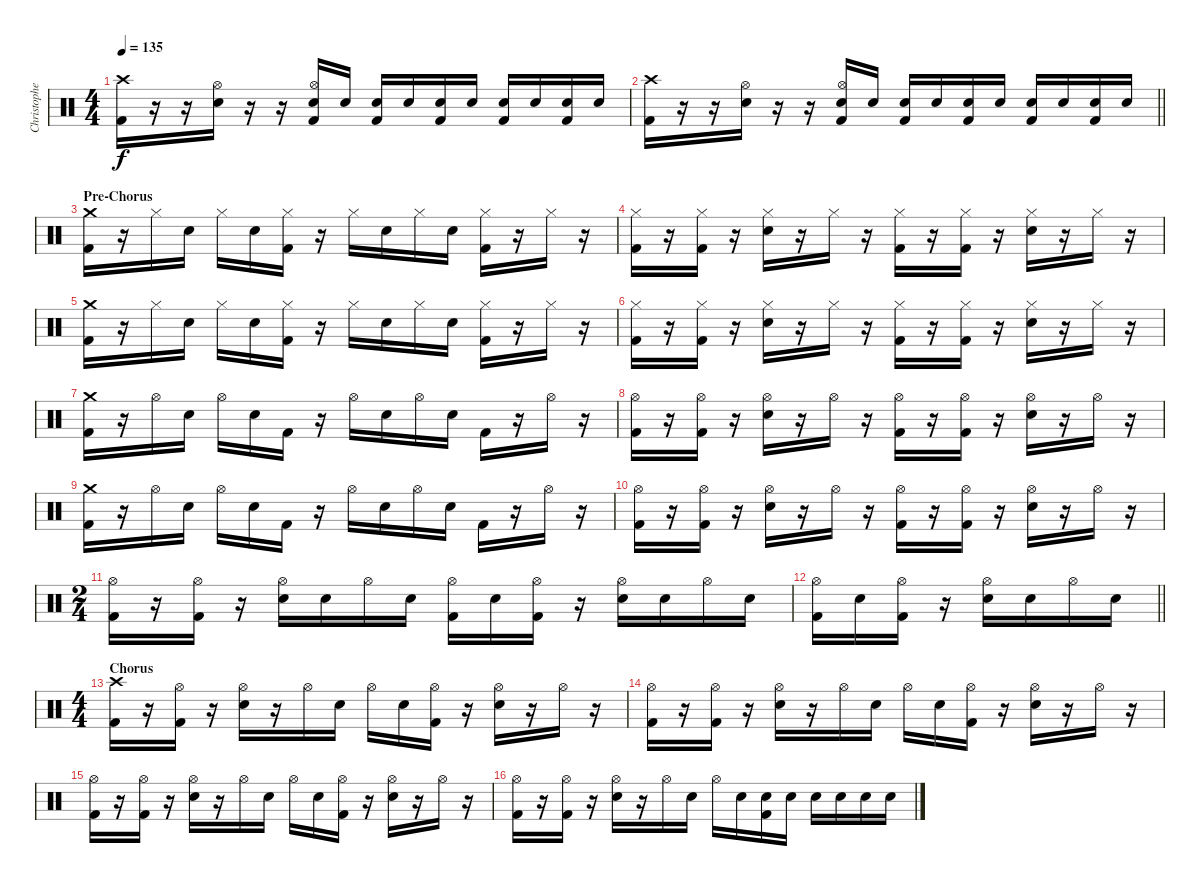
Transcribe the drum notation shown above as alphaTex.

\track ("Christopher - Drums" "Christophe") {instrument percussion}
\staff {score}
\articulation defaults
\ts (4 4)
\tempo 135
\clef neutral
\ks c
("Crash high (hit)" "Kick (hit) 2").16{dy f} r.16 r.16 ("Hi-Hat (open)" "Electric Snare (hit)").16 r.16 r.16 ("Hi-Hat (open)" "Electric Snare (hit)" "Kick (hit) 2").16 "Electric Snare (hit)".16 ("Electric Snare (hit)" "Kick (hit) 2").16 "Electric Snare (hit)".16 ("Electric Snare (hit)" "Kick (hit) 2").16 "Electric Snare (hit)".16 ("Electric Snare (hit)" "Kick (hit) 2").16 "Electric Snare (hit)".16 ("Electric Snare (hit)" "Kick (hit) 2").16 "Electric Snare (hit)".16 |
\barLineRight lightlight
("Crash high (hit)" "Kick (hit) 2").16 r.16 r.16 ("Hi-Hat (open)" "Electric Snare (hit)").16 r.16 r.16 ("Hi-Hat (open)" "Electric Snare (hit)" "Kick (hit) 2").16 "Electric Snare (hit)".16 ("Electric Snare (hit)" "Kick (hit) 2").16 "Electric Snare (hit)".16 ("Electric Snare (hit)" "Kick (hit) 2").16 "Electric Snare (hit)".16 ("Electric Snare (hit)" "Kick (hit) 2").16 "Electric Snare (hit)".16 ("Electric Snare (hit)" "Kick (hit) 2").16 "Electric Snare (hit)".16 |
\section ("" "Pre-Chorus")
("Crash medium (hit)" "Kick (hit) 2").16 r.16 "Hi-Hat (closed)".16 "Electric Snare (hit)".16 "Hi-Hat (closed)".16 "Electric Snare (hit)".16 ("Hi-Hat (closed)" "Kick (hit) 2").16 r.16 "Hi-Hat (closed)".16 "Electric Snare (hit)".16 "Hi-Hat (closed)".16 "Electric Snare (hit)".16 ("Hi-Hat (closed)" "Kick (hit) 2").16 r.16 "Hi-Hat (closed)".16 r.16 |
("Hi-Hat (closed)" "Kick (hit) 2").16 r.16 ("Hi-Hat (closed)" "Kick (hit) 2").16 r.16 ("Hi-Hat (closed)" "Electric Snare (hit)").16 r.16 "Hi-Hat (closed)".16 r.16 ("Hi-Hat (closed)" "Kick (hit) 2").16 r.16 ("Hi-Hat (closed)" "Kick (hit) 2").16 r.16 ("Hi-Hat (closed)" "Electric Snare (hit)").16 r.16 "Hi-Hat (closed)".16 r.16 |
("Crash medium (hit)" "Kick (hit) 2").16 r.16 "Hi-Hat (closed)".16 "Electric Snare (hit)".16 "Hi-Hat (closed)".16 "Electric Snare (hit)".16 ("Hi-Hat (closed)" "Kick (hit) 2").16 r.16 "Hi-Hat (closed)".16 "Electric Snare (hit)".16 "Hi-Hat (closed)".16 "Electric Snare (hit)".16 ("Hi-Hat (closed)" "Kick (hit) 2").16 r.16 "Hi-Hat (closed)".16 r.16 |
("Hi-Hat (closed)" "Kick (hit) 2").16 r.16 ("Hi-Hat (closed)" "Kick (hit) 2").16 r.16 ("Hi-Hat (closed)" "Electric Snare (hit)").16 r.16 "Hi-Hat (closed)".16 r.16 ("Hi-Hat (closed)" "Kick (hit) 2").16 r.16 ("Hi-Hat (closed)" "Kick (hit) 2").16 r.16 ("Hi-Hat (closed)" "Electric Snare (hit)").16 r.16 "Hi-Hat (closed)".16 r.16 |
("Crash medium (hit)" "Kick (hit) 2").16 r.16 "Hi-Hat (open)".16 "Electric Snare (hit)".16 "Hi-Hat (open)".16 "Electric Snare (hit)".16 "Kick (hit) 2".16 r.16 "Hi-Hat (open)".16 "Electric Snare (hit)".16 "Hi-Hat (open)".16 "Electric Snare (hit)".16 "Kick (hit) 2".16 r.16 "Hi-Hat (open)".16 r.16 |
("Hi-Hat (open)" "Kick (hit) 2").16 r.16 ("Hi-Hat (open)" "Kick (hit) 2").16 r.16 ("Hi-Hat (open)" "Electric Snare (hit)").16 r.16 "Hi-Hat (open)".16 r.16 ("Hi-Hat (open)" "Kick (hit) 2").16 r.16 ("Hi-Hat (open)" "Kick (hit) 2").16 r.16 ("Hi-Hat (open)" "Electric Snare (hit)").16 r.16 "Hi-Hat (open)".16 r.16 |
("Crash medium (hit)" "Kick (hit) 2").16 r.16 "Hi-Hat (open)".16 "Electric Snare (hit)".16 "Hi-Hat (open)".16 "Electric Snare (hit)".16 "Kick (hit) 2".16 r.16 "Hi-Hat (open)".16 "Electric Snare (hit)".16 "Hi-Hat (open)".16 "Electric Snare (hit)".16 "Kick (hit) 2".16 r.16 "Hi-Hat (open)".16 r.16 |
("Hi-Hat (open)" "Kick (hit) 2").16 r.16 ("Hi-Hat (open)" "Kick (hit) 2").16 r.16 ("Hi-Hat (open)" "Electric Snare (hit)").16 r.16 "Hi-Hat (open)".16 r.16 ("Hi-Hat (open)" "Kick (hit) 2").16 r.16 ("Hi-Hat (open)" "Kick (hit) 2").16 r.16 ("Hi-Hat (open)" "Electric Snare (hit)").16 r.16 "Hi-Hat (open)".16 r.16 |
\ts (2 4)
("Hi-Hat (open)" "Kick (hit) 2").16 r.16 ("Hi-Hat (open)" "Kick (hit) 2").16 r.16 ("Hi-Hat (open)" "Electric Snare (hit)").16 "Electric Snare (hit)".16 "Hi-Hat (open)".16 "Electric Snare (hit)".16 ("Hi-Hat (open)" "Kick (hit) 2").16 "Electric Snare (hit)".16 ("Hi-Hat (open)" "Kick (hit) 2").16 r.16 ("Hi-Hat (open)" "Electric Snare (hit)").16 "Electric Snare (hit)".16 "Hi-Hat (open)".16 "Electric Snare (hit)".16 |
\barLineRight lightlight
("Hi-Hat (open)" "Kick (hit) 2").16 "Electric Snare (hit)".16 ("Hi-Hat (open)" "Kick (hit) 2").16 r.16 ("Hi-Hat (open)" "Electric Snare (hit)").16 "Electric Snare (hit)".16 "Hi-Hat (open)".16 "Electric Snare (hit)".16 |
\ts (4 4)
\section ("" "Chorus")
("Crash high (hit)" "Kick (hit) 2").16 r.16 ("Hi-Hat (open)" "Kick (hit) 2").16 r.16 ("Hi-Hat (open)" "Electric Snare (hit)").16 r.16 "Hi-Hat (open)".16 "Electric Snare (hit)".16 "Hi-Hat (open)".16 "Electric Snare (hit)".16 ("Hi-Hat (open)" "Kick (hit) 2").16 r.16 ("Hi-Hat (open)" "Electric Snare (hit)").16 r.16 "Hi-Hat (open)".16 r.16 |
("Hi-Hat (open)" "Kick (hit) 2").16 r.16 ("Hi-Hat (open)" "Kick (hit) 2").16 r.16 ("Hi-Hat (open)" "Electric Snare (hit)").16 r.16 "Hi-Hat (open)".16 "Electric Snare (hit)".16 "Hi-Hat (open)".16 "Electric Snare (hit)".16 ("Hi-Hat (open)" "Kick (hit) 2").16 r.16 ("Hi-Hat (open)" "Electric Snare (hit)").16 r.16 "Hi-Hat (open)".16 r.16 |
("Hi-Hat (open)" "Kick (hit) 2").16 r.16 ("Hi-Hat (open)" "Kick (hit) 2").16 r.16 ("Hi-Hat (open)" "Electric Snare (hit)").16 r.16 "Hi-Hat (open)".16 "Electric Snare (hit)".16 "Hi-Hat (open)".16 "Electric Snare (hit)".16 ("Hi-Hat (open)" "Kick (hit) 2").16 r.16 ("Hi-Hat (open)" "Electric Snare (hit)").16 r.16 "Hi-Hat (open)".16 r.16 |
("Hi-Hat (open)" "Kick (hit) 2").16 r.16 ("Hi-Hat (open)" "Kick (hit) 2").16 r.16 ("Hi-Hat (open)" "Electric Snare (hit)").16 r.16 "Hi-Hat (open)".16 "Electric Snare (hit)".16 "Hi-Hat (open)".16 "Electric Snare (hit)".16 ("Electric Snare (hit)" "Kick (hit) 2").16 "Electric Snare (hit)".16 "Electric Snare (hit)".16 "Electric Snare (hit)".16 "Electric Snare (hit)".16 "Electric Snare (hit)".16
